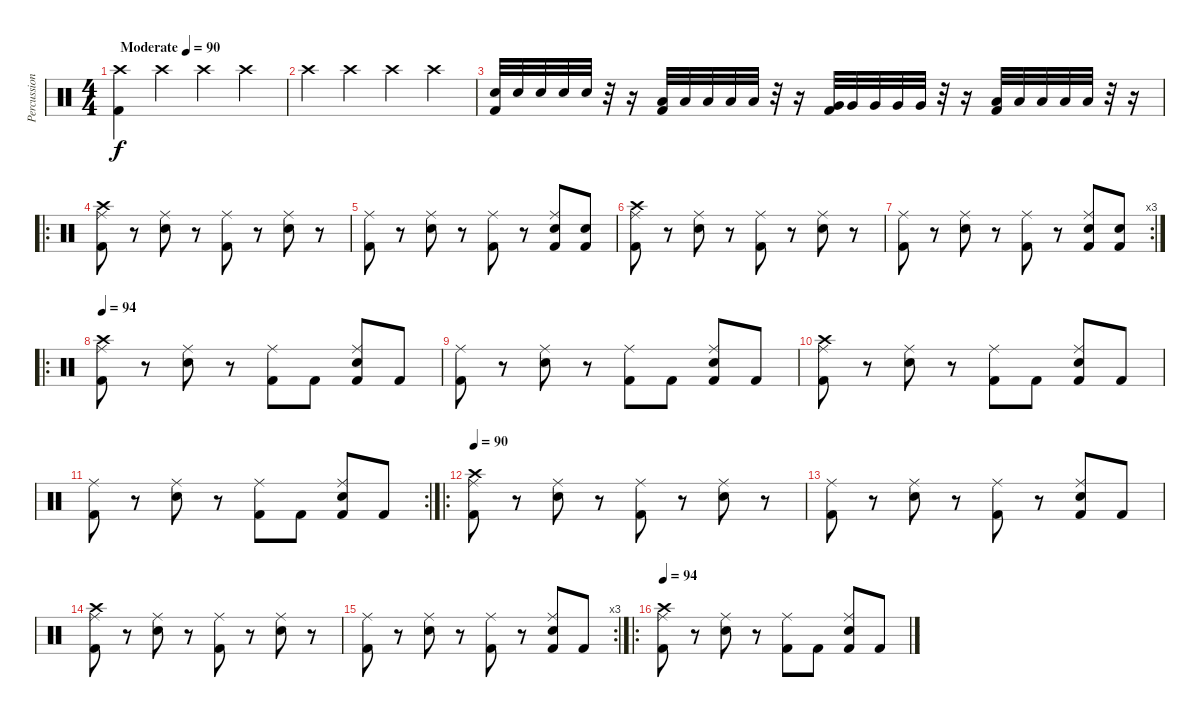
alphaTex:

\track ("Percussion" "Percussion") {instrument percussion}
\staff {score}
\articulation defaults
\ts (4 4)
\tempo (90 "Moderate")
\clef neutral
\ks c
("Crash high (hit)" "Kick (hit) 2").4{dy f} "Crash high (hit)".4 "Crash high (hit)".4 "Crash high (hit)".4 |
"Crash high (hit)".4 "Crash high (hit)".4 "Crash high (hit)".4 "Crash high (hit)".4 |
("Electric Snare (hit)" "Kick (hit) 2").32 "Electric Snare (hit)".32 "Electric Snare (hit)".32 "Electric Snare (hit)".32 "Electric Snare (hit)".32 r.32 r.16 ("Low Tom (hit)" "Kick (hit) 2").32 "Low Tom (hit)".32 "Low Tom (hit)".32 "Low Tom (hit)".32 "Low Tom (hit)".32 r.32 r.16 ("Very Low Tom (hit)" "Kick (hit) 2").32 "Very Low Tom (hit)".32 "Very Low Tom (hit)".32 "Very Low Tom (hit)".32 "Very Low Tom (hit)".32 r.32 r.16 ("Low Floor Tom (hit)" "Kick (hit) 2").32 "Low Floor Tom (hit)".32 "Low Floor Tom (hit)".32 "Low Floor Tom (hit)".32 "Low Floor Tom (hit)".32 r.32 r.16 |
\ro
("Ride (middle)" "Crash high (hit)" "Kick (hit) 2").8 r.8 ("Ride (middle)" "Snare (hit) 2").8 r.8 ("Ride (middle)" "Kick (hit) 2").8 r.8 ("Ride (middle)" "Snare (hit) 2").8 r.8 |
("Ride (middle)" "Kick (hit) 2").8 r.8 ("Ride (middle)" "Snare (hit) 2").8 r.8 ("Ride (middle)" "Kick (hit) 2").8 r.8 ("Ride (middle)" "Snare (hit) 2" "Kick (hit) 2").8 ("Snare (hit) 2" "Kick (hit) 2").8 |
("Ride (middle)" "Crash high (hit)" "Kick (hit) 2").8 r.8 ("Ride (middle)" "Snare (hit) 2").8 r.8 ("Ride (middle)" "Kick (hit) 2").8 r.8 ("Ride (middle)" "Snare (hit) 2").8 r.8 |
\rc 3
("Ride (middle)" "Kick (hit) 2").8 r.8 ("Ride (middle)" "Snare (hit) 2").8 r.8 ("Ride (middle)" "Kick (hit) 2").8 r.8 ("Ride (middle)" "Snare (hit) 2" "Kick (hit) 2").8 ("Snare (hit) 2" "Kick (hit) 2").8 |
\ro
\tempo 94
("Ride (middle)" "Crash high (hit)" "Kick (hit) 2").8 r.8 ("Ride (middle)" "Snare (hit) 2").8 r.8 ("Ride (middle)" "Kick (hit) 2").8 "Kick (hit) 2".8 ("Ride (middle)" "Snare (hit) 2" "Kick (hit) 2").8 "Kick (hit) 2".8 |
("Ride (middle)" "Kick (hit) 2").8 r.8 ("Ride (middle)" "Snare (hit) 2").8 r.8 ("Ride (middle)" "Kick (hit) 2").8 "Kick (hit) 2".8 ("Ride (middle)" "Snare (hit) 2" "Kick (hit) 2").8 "Kick (hit) 2".8 |
("Ride (middle)" "Crash high (hit)" "Kick (hit) 2").8 r.8 ("Ride (middle)" "Snare (hit) 2").8 r.8 ("Ride (middle)" "Kick (hit) 2").8 "Kick (hit) 2".8 ("Ride (middle)" "Snare (hit) 2" "Kick (hit) 2").8 "Kick (hit) 2".8 |
\rc 2
("Ride (middle)" "Kick (hit) 2").8 r.8 ("Ride (middle)" "Snare (hit) 2").8 r.8 ("Ride (middle)" "Kick (hit) 2").8 "Kick (hit) 2".8 ("Ride (middle)" "Snare (hit) 2" "Kick (hit) 2").8 "Kick (hit) 2".8 |
\ro
\tempo 90
("Ride (middle)" "Crash high (hit)" "Kick (hit) 2").8 r.8 ("Ride (middle)" "Snare (hit) 2").8 r.8 ("Ride (middle)" "Kick (hit) 2").8 r.8 ("Ride (middle)" "Snare (hit) 2").8 r.8 |
("Ride (middle)" "Kick (hit) 2").8 r.8 ("Ride (middle)" "Snare (hit) 2").8 r.8 ("Ride (middle)" "Kick (hit) 2").8 r.8 ("Ride (middle)" "Snare (hit) 2" "Kick (hit) 2").8 "Kick (hit) 2".8 |
("Ride (middle)" "Crash high (hit)" "Kick (hit) 2").8 r.8 ("Ride (middle)" "Snare (hit) 2").8 r.8 ("Ride (middle)" "Kick (hit) 2").8 r.8 ("Ride (middle)" "Snare (hit) 2").8 r.8 |
\rc 3
("Ride (middle)" "Kick (hit) 2").8 r.8 ("Ride (middle)" "Snare (hit) 2").8 r.8 ("Ride (middle)" "Kick (hit) 2").8 r.8 ("Ride (middle)" "Snare (hit) 2" "Kick (hit) 2").8 "Kick (hit) 2".8 |
\ro
\tempo 94
("Ride (middle)" "Crash high (hit)" "Kick (hit) 2").8 r.8 ("Ride (middle)" "Snare (hit) 2").8 r.8 ("Ride (middle)" "Kick (hit) 2").8 "Kick (hit) 2".8 ("Ride (middle)" "Snare (hit) 2" "Kick (hit) 2").8 "Kick (hit) 2".8
